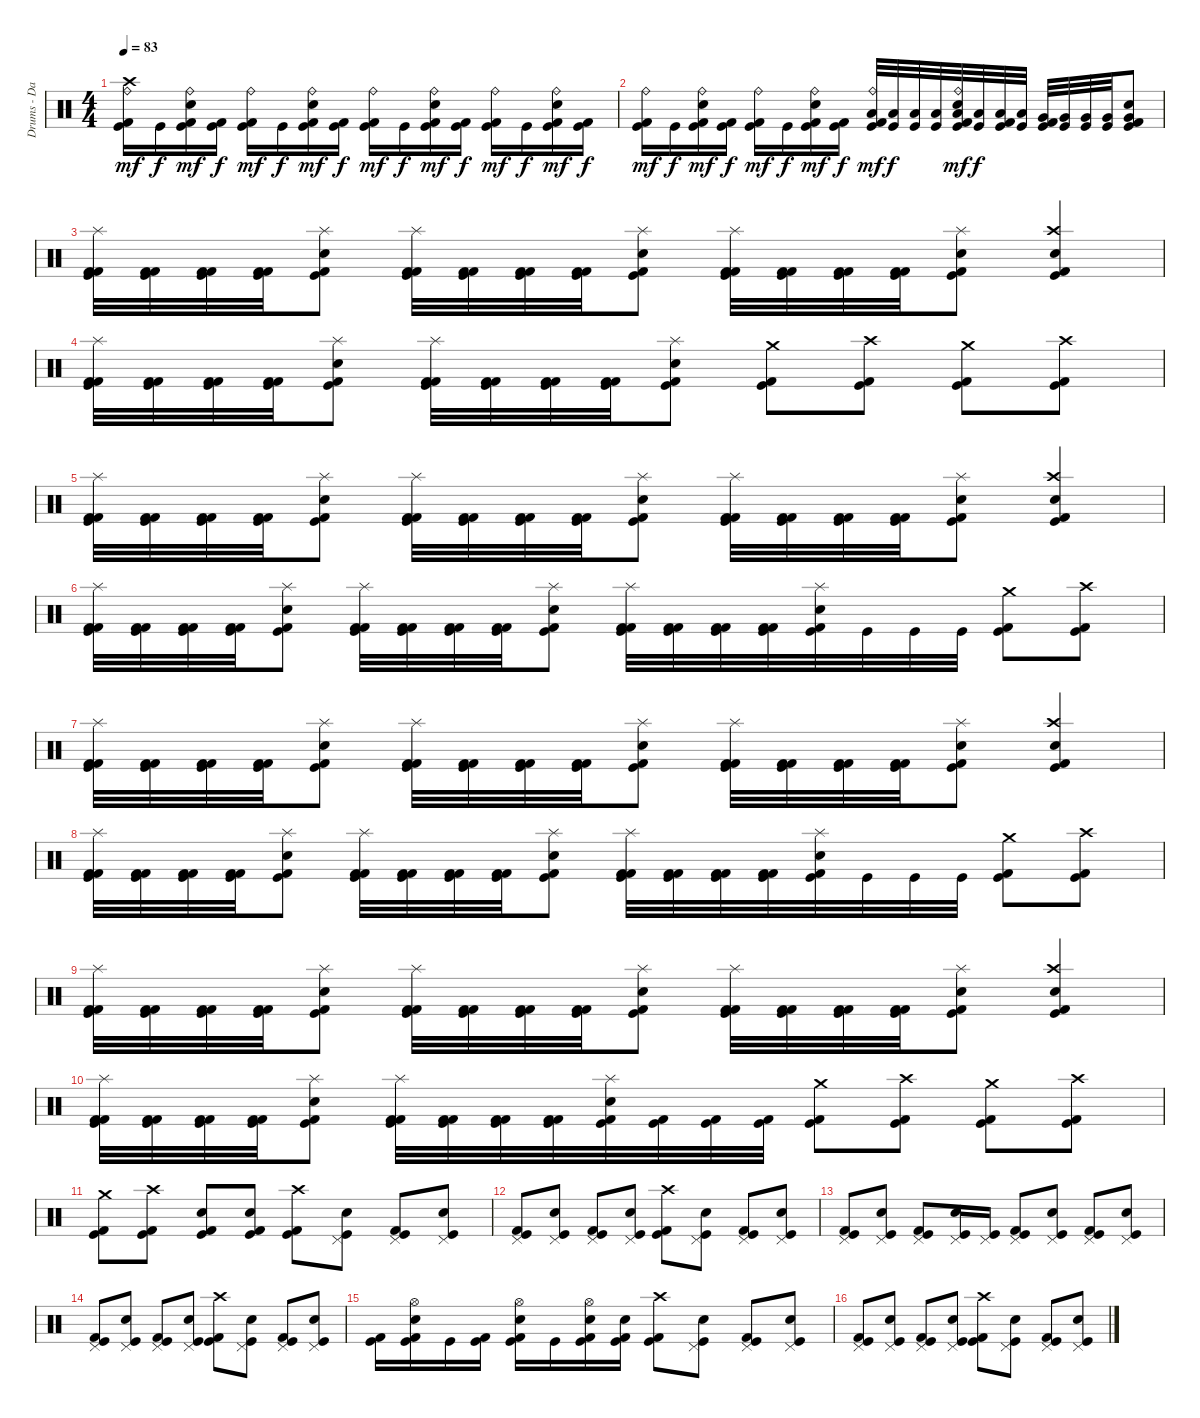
\track ("Drums - Daniel Zimmermann" "Drums - Da") {instrument percussion}
\staff {score}
\articulation defaults
\ts (4 4)
\tempo 83
\clef neutral
\ks c
("Kick (hit)" "Kick (hit) 2" "Crash high (hit)" "Ride (bell)").16{dy mf} "Kick (hit)".16{dy f} ("Kick (hit)" "Kick (hit) 2" "Electric Snare (hit)" "Ride (bell)").16{dy mf} ("Kick (hit)" "Kick (hit) 2").16{dy f} ("Kick (hit)" "Kick (hit) 2" "Ride (bell)").16{dy mf} "Kick (hit)".16{dy f} ("Kick (hit)" "Kick (hit) 2" "Electric Snare (hit)" "Ride (bell)").16{dy mf} ("Kick (hit)" "Kick (hit) 2").16{dy f} ("Kick (hit)" "Kick (hit) 2" "Ride (bell)").16{dy mf} "Kick (hit)".16{dy f} ("Kick (hit)" "Kick (hit) 2" "Electric Snare (hit)" "Ride (bell)").16{dy mf} ("Kick (hit)" "Kick (hit) 2").16{dy f} ("Kick (hit)" "Kick (hit) 2" "Ride (bell)").16{dy mf} "Kick (hit)".16{dy f} ("Kick (hit)" "Kick (hit) 2" "Electric Snare (hit)" "Ride (bell)").16{dy mf} ("Kick (hit)" "Kick (hit) 2").16{dy f} |
("Kick (hit)" "Kick (hit) 2" "Ride (bell)").16{dy mf} "Kick (hit)".16{dy f} ("Kick (hit)" "Kick (hit) 2" "Electric Snare (hit)" "Ride (bell)").16{dy mf} ("Kick (hit)" "Kick (hit) 2").16{dy f} ("Kick (hit)" "Kick (hit) 2" "Ride (bell)").16{dy mf} "Kick (hit)".16{dy f} ("Kick (hit)" "Kick (hit) 2" "Electric Snare (hit)" "Ride (bell)").16{dy mf} ("Kick (hit)" "Kick (hit) 2").16{dy f} ("Kick (hit)" "Kick (hit) 2" "Low Tom (hit)" "Ride (bell)").32{dy mf} ("Kick (hit)" "Low Tom (hit)").32{dy f} ("Kick (hit)" "Low Tom (hit)").32 ("Kick (hit)" "Low Tom (hit)").32 ("Kick (hit)" "Kick (hit) 2" "Electric Snare (hit)" "Low Tom (hit)" "Ride (bell)").32{dy mf} ("Kick (hit)" "Low Tom (hit)").32{dy f} ("Kick (hit)" "Kick (hit) 2" "Low Tom (hit)").32 ("Kick (hit)" "Low Tom (hit)").32 ("Kick (hit)" "Kick (hit) 2" "Very Low Tom (hit)").32 ("Kick (hit)" "Very Low Tom (hit)").32 ("Kick (hit)" "Very Low Tom (hit)").32 ("Kick (hit)" "Very Low Tom (hit)").32 ("Kick (hit)" "Kick (hit) 2" "Electric Snare (hit)" "Very Low Tom (hit)").8 |
("Kick (hit)" "Kick (hit) 2" "Kick (hit) 2" "Splash (hit)").32 ("Kick (hit)" "Kick (hit) 2" "Kick (hit) 2").32 ("Kick (hit)" "Kick (hit) 2" "Kick (hit) 2").32 ("Kick (hit)" "Kick (hit) 2" "Kick (hit) 2").32 ("Kick (hit)" "Kick (hit) 2" "Electric Snare (hit)" "Splash (hit)").8 ("Kick (hit)" "Kick (hit) 2" "Kick (hit) 2" "Splash (hit)").32 ("Kick (hit)" "Kick (hit) 2" "Kick (hit) 2").32 ("Kick (hit)" "Kick (hit) 2" "Kick (hit) 2").32 ("Kick (hit)" "Kick (hit) 2" "Kick (hit) 2").32 ("Kick (hit)" "Kick (hit) 2" "Electric Snare (hit)" "Splash (hit)").8 ("Kick (hit)" "Kick (hit) 2" "Kick (hit) 2" "Splash (hit)").32 ("Kick (hit)" "Kick (hit) 2" "Kick (hit) 2").32 ("Kick (hit)" "Kick (hit) 2" "Kick (hit) 2").32 ("Kick (hit)" "Kick (hit) 2" "Kick (hit) 2").32 ("Kick (hit)" "Kick (hit) 2" "Electric Snare (hit)" "Splash (hit)").8 ("Kick (hit)" "Kick (hit) 2" "Electric Snare (hit)" "Crash high (hit)").4 |
("Kick (hit)" "Kick (hit) 2" "Kick (hit) 2" "Splash (hit)").32 ("Kick (hit)" "Kick (hit) 2" "Kick (hit) 2").32 ("Kick (hit)" "Kick (hit) 2" "Kick (hit) 2").32 ("Kick (hit)" "Kick (hit) 2" "Kick (hit) 2").32 ("Kick (hit)" "Kick (hit) 2" "Electric Snare (hit)" "Splash (hit)").8 ("Kick (hit)" "Kick (hit) 2" "Kick (hit) 2" "Splash (hit)").32 ("Kick (hit)" "Kick (hit) 2" "Kick (hit) 2").32 ("Kick (hit)" "Kick (hit) 2" "Kick (hit) 2").32 ("Kick (hit)" "Kick (hit) 2" "Kick (hit) 2").32 ("Kick (hit)" "Kick (hit) 2" "Electric Snare (hit)" "Splash (hit)").8 ("Kick (hit)" "Kick (hit) 2" "Crash medium (hit)").8 ("Kick (hit)" "Kick (hit) 2" "Crash high (hit)").8 ("Kick (hit)" "Kick (hit) 2" "Crash medium (hit)").8 ("Kick (hit)" "Kick (hit) 2" "Crash high (hit)").8 |
("Kick (hit)" "Kick (hit) 2" "Kick (hit) 2" "Splash (hit)").32 ("Kick (hit)" "Kick (hit) 2" "Kick (hit) 2").32 ("Kick (hit)" "Kick (hit) 2" "Kick (hit) 2").32 ("Kick (hit)" "Kick (hit) 2" "Kick (hit) 2").32 ("Kick (hit)" "Kick (hit) 2" "Electric Snare (hit)" "Splash (hit)").8 ("Kick (hit)" "Kick (hit) 2" "Kick (hit) 2" "Splash (hit)").32 ("Kick (hit)" "Kick (hit) 2" "Kick (hit) 2").32 ("Kick (hit)" "Kick (hit) 2" "Kick (hit) 2").32 ("Kick (hit)" "Kick (hit) 2" "Kick (hit) 2").32 ("Kick (hit)" "Kick (hit) 2" "Electric Snare (hit)" "Splash (hit)").8 ("Kick (hit)" "Kick (hit) 2" "Kick (hit) 2" "Splash (hit)").32 ("Kick (hit)" "Kick (hit) 2" "Kick (hit) 2").32 ("Kick (hit)" "Kick (hit) 2" "Kick (hit) 2").32 ("Kick (hit)" "Kick (hit) 2" "Kick (hit) 2").32 ("Kick (hit)" "Kick (hit) 2" "Electric Snare (hit)" "Splash (hit)").8 ("Kick (hit)" "Kick (hit) 2" "Electric Snare (hit)" "Crash high (hit)").4 |
("Kick (hit)" "Kick (hit) 2" "Kick (hit) 2" "Splash (hit)").32 ("Kick (hit)" "Kick (hit) 2" "Kick (hit) 2").32 ("Kick (hit)" "Kick (hit) 2" "Kick (hit) 2").32 ("Kick (hit)" "Kick (hit) 2" "Kick (hit) 2").32 ("Kick (hit)" "Kick (hit) 2" "Electric Snare (hit)" "Splash (hit)").8 ("Kick (hit)" "Kick (hit) 2" "Kick (hit) 2" "Splash (hit)").32 ("Kick (hit)" "Kick (hit) 2" "Kick (hit) 2").32 ("Kick (hit)" "Kick (hit) 2" "Kick (hit) 2").32 ("Kick (hit)" "Kick (hit) 2" "Kick (hit) 2").32 ("Kick (hit)" "Kick (hit) 2" "Electric Snare (hit)" "Splash (hit)").8 ("Kick (hit)" "Kick (hit) 2" "Kick (hit) 2" "Splash (hit)").32 ("Kick (hit)" "Kick (hit) 2" "Kick (hit) 2").32 ("Kick (hit)" "Kick (hit) 2" "Kick (hit) 2").32 ("Kick (hit)" "Kick (hit) 2" "Kick (hit) 2").32 ("Kick (hit)" "Kick (hit) 2" "Electric Snare (hit)" "Splash (hit)").32 "Kick (hit)".32 "Kick (hit)".32 "Kick (hit)".32 ("Kick (hit)" "Kick (hit) 2" "Crash medium (hit)").8 ("Kick (hit)" "Kick (hit) 2" "Crash high (hit)").8 |
("Kick (hit)" "Kick (hit) 2" "Kick (hit) 2" "Splash (hit)").32 ("Kick (hit)" "Kick (hit) 2" "Kick (hit) 2").32 ("Kick (hit)" "Kick (hit) 2" "Kick (hit) 2").32 ("Kick (hit)" "Kick (hit) 2" "Kick (hit) 2").32 ("Kick (hit)" "Kick (hit) 2" "Electric Snare (hit)" "Splash (hit)").8 ("Kick (hit)" "Kick (hit) 2" "Kick (hit) 2" "Splash (hit)").32 ("Kick (hit)" "Kick (hit) 2" "Kick (hit) 2").32 ("Kick (hit)" "Kick (hit) 2" "Kick (hit) 2").32 ("Kick (hit)" "Kick (hit) 2" "Kick (hit) 2").32 ("Kick (hit)" "Kick (hit) 2" "Electric Snare (hit)" "Splash (hit)").8 ("Kick (hit)" "Kick (hit) 2" "Kick (hit) 2" "Splash (hit)").32 ("Kick (hit)" "Kick (hit) 2" "Kick (hit) 2").32 ("Kick (hit)" "Kick (hit) 2" "Kick (hit) 2").32 ("Kick (hit)" "Kick (hit) 2" "Kick (hit) 2").32 ("Kick (hit)" "Kick (hit) 2" "Electric Snare (hit)" "Splash (hit)").8 ("Kick (hit)" "Kick (hit) 2" "Electric Snare (hit)" "Crash high (hit)").4 |
("Kick (hit)" "Kick (hit) 2" "Kick (hit) 2" "Splash (hit)").32 ("Kick (hit)" "Kick (hit) 2" "Kick (hit) 2").32 ("Kick (hit)" "Kick (hit) 2" "Kick (hit) 2").32 ("Kick (hit)" "Kick (hit) 2" "Kick (hit) 2").32 ("Kick (hit)" "Kick (hit) 2" "Electric Snare (hit)" "Splash (hit)").8 ("Kick (hit)" "Kick (hit) 2" "Kick (hit) 2" "Splash (hit)").32 ("Kick (hit)" "Kick (hit) 2" "Kick (hit) 2").32 ("Kick (hit)" "Kick (hit) 2" "Kick (hit) 2").32 ("Kick (hit)" "Kick (hit) 2" "Kick (hit) 2").32 ("Kick (hit)" "Kick (hit) 2" "Electric Snare (hit)" "Splash (hit)").8 ("Kick (hit)" "Kick (hit) 2" "Kick (hit) 2" "Splash (hit)").32 ("Kick (hit)" "Kick (hit) 2" "Kick (hit) 2").32 ("Kick (hit)" "Kick (hit) 2" "Kick (hit) 2").32 ("Kick (hit)" "Kick (hit) 2" "Kick (hit) 2").32 ("Kick (hit)" "Kick (hit) 2" "Electric Snare (hit)" "Splash (hit)").32 "Kick (hit)".32 "Kick (hit)".32 "Kick (hit)".32 ("Kick (hit)" "Kick (hit) 2" "Crash medium (hit)").8 ("Kick (hit)" "Kick (hit) 2" "Crash high (hit)").8 |
("Kick (hit)" "Kick (hit) 2" "Kick (hit) 2" "Splash (hit)").32 ("Kick (hit)" "Kick (hit) 2" "Kick (hit) 2").32 ("Kick (hit)" "Kick (hit) 2" "Kick (hit) 2").32 ("Kick (hit)" "Kick (hit) 2" "Kick (hit) 2").32 ("Kick (hit)" "Kick (hit) 2" "Electric Snare (hit)" "Splash (hit)").8 ("Kick (hit)" "Kick (hit) 2" "Kick (hit) 2" "Splash (hit)").32 ("Kick (hit)" "Kick (hit) 2" "Kick (hit) 2").32 ("Kick (hit)" "Kick (hit) 2" "Kick (hit) 2").32 ("Kick (hit)" "Kick (hit) 2" "Kick (hit) 2").32 ("Kick (hit)" "Kick (hit) 2" "Electric Snare (hit)" "Splash (hit)").8 ("Kick (hit)" "Kick (hit) 2" "Kick (hit) 2" "Splash (hit)").32 ("Kick (hit)" "Kick (hit) 2" "Kick (hit) 2").32 ("Kick (hit)" "Kick (hit) 2" "Kick (hit) 2").32 ("Kick (hit)" "Kick (hit) 2" "Kick (hit) 2").32 ("Kick (hit)" "Kick (hit) 2" "Electric Snare (hit)" "Splash (hit)").8 ("Kick (hit)" "Kick (hit) 2" "Electric Snare (hit)" "Crash high (hit)").4 |
("Kick (hit)" "Kick (hit) 2" "Kick (hit) 2" "Splash (hit)").32 ("Kick (hit)" "Kick (hit) 2" "Kick (hit) 2").32 ("Kick (hit)" "Kick (hit) 2" "Kick (hit) 2").32 ("Kick (hit)" "Kick (hit) 2" "Kick (hit) 2").32 ("Kick (hit)" "Kick (hit) 2" "Electric Snare (hit)" "Splash (hit)").8 ("Kick (hit)" "Kick (hit) 2" "Kick (hit) 2" "Splash (hit)").32 ("Kick (hit)" "Kick (hit) 2" "Kick (hit) 2").32 ("Kick (hit)" "Kick (hit) 2" "Kick (hit) 2").32 ("Kick (hit)" "Kick (hit) 2" "Kick (hit) 2").32 ("Kick (hit)" "Kick (hit) 2" "Electric Snare (hit)" "Splash (hit)").32 ("Kick (hit)" "Kick (hit) 2").32 ("Kick (hit)" "Kick (hit) 2").32 ("Kick (hit)" "Kick (hit) 2").32 ("Kick (hit)" "Kick (hit) 2" "Crash medium (hit)").8 ("Kick (hit)" "Kick (hit) 2" "Crash high (hit)").8 ("Kick (hit)" "Kick (hit) 2" "Crash medium (hit)").8 ("Kick (hit)" "Kick (hit) 2" "Crash high (hit)").8 |
("Kick (hit)" "Kick (hit) 2" "Crash medium (hit)").8 ("Kick (hit)" "Kick (hit) 2" "Crash high (hit)").8 ("Kick (hit)" "Kick (hit) 2" "Electric Snare (hit)").8 ("Kick (hit)" "Kick (hit) 2" "Electric Snare (hit)").8 ("Kick (hit)" "Kick (hit) 2" "Crash high (hit)").8 ("Kick (hit)" "Electric Snare (hit)" "Pedal Hi-Hat (hit)").8 ("Kick (hit)" "Kick (hit) 2" "Pedal Hi-Hat (hit)").8 ("Kick (hit)" "Electric Snare (hit)" "Pedal Hi-Hat (hit)").8 |
("Kick (hit)" "Kick (hit) 2" "Pedal Hi-Hat (hit)").8 ("Kick (hit)" "Electric Snare (hit)" "Pedal Hi-Hat (hit)").8 ("Kick (hit)" "Kick (hit) 2" "Pedal Hi-Hat (hit)").8 ("Kick (hit)" "Electric Snare (hit)" "Pedal Hi-Hat (hit)").8 ("Kick (hit)" "Kick (hit) 2" "Crash high (hit)").8 ("Kick (hit)" "Electric Snare (hit)" "Pedal Hi-Hat (hit)").8 ("Kick (hit)" "Kick (hit) 2" "Pedal Hi-Hat (hit)").8 ("Kick (hit)" "Electric Snare (hit)" "Pedal Hi-Hat (hit)").8 |
("Kick (hit)" "Kick (hit) 2" "Pedal Hi-Hat (hit)").8 ("Kick (hit)" "Electric Snare (hit)" "Pedal Hi-Hat (hit)").8 ("Kick (hit)" "Kick (hit) 2" "Pedal Hi-Hat (hit)").8 ("Kick (hit)" "Electric Snare (hit)" "Pedal Hi-Hat (hit)").16 ("Kick (hit)" "Pedal Hi-Hat (hit)").16 ("Kick (hit)" "Kick (hit) 2" "Pedal Hi-Hat (hit)").8 ("Kick (hit)" "Electric Snare (hit)" "Pedal Hi-Hat (hit)").8 ("Kick (hit)" "Kick (hit) 2" "Pedal Hi-Hat (hit)").8 ("Kick (hit)" "Electric Snare (hit)" "Pedal Hi-Hat (hit)").8 |
("Kick (hit)" "Kick (hit) 2" "Pedal Hi-Hat (hit)").8 ("Kick (hit)" "Electric Snare (hit)" "Pedal Hi-Hat (hit)").8 ("Kick (hit)" "Kick (hit) 2" "Pedal Hi-Hat (hit)").8 ("Kick (hit)" "Electric Snare (hit)" "Pedal Hi-Hat (hit)").8 ("Kick (hit)" "Kick (hit) 2" "Crash high (hit)").8 ("Kick (hit)" "Electric Snare (hit)" "Pedal Hi-Hat (hit)").8 ("Kick (hit)" "Kick (hit) 2" "Pedal Hi-Hat (hit)").8 ("Kick (hit)" "Electric Snare (hit)" "Pedal Hi-Hat (hit)").8 |
("Kick (hit)" "Kick (hit) 2").16 ("Kick (hit)" "Kick (hit) 2" "Electric Snare (hit)" "Hi-Hat (open)").16 "Kick (hit)".16 ("Kick (hit)" "Kick (hit) 2").16 ("Kick (hit)" "Kick (hit) 2" "Electric Snare (hit)" "Hi-Hat (open)").16 "Kick (hit)".16 ("Kick (hit)" "Kick (hit) 2" "Electric Snare (hit)" "Hi-Hat (open)").16 ("Kick (hit)" "Kick (hit) 2" "Electric Snare (hit)").16 ("Kick (hit)" "Kick (hit) 2" "Crash high (hit)").8 ("Kick (hit)" "Electric Snare (hit)" "Pedal Hi-Hat (hit)").8 ("Kick (hit)" "Kick (hit) 2" "Pedal Hi-Hat (hit)").8 ("Kick (hit)" "Electric Snare (hit)" "Pedal Hi-Hat (hit)").8 |
("Kick (hit)" "Kick (hit) 2" "Pedal Hi-Hat (hit)").8 ("Kick (hit)" "Electric Snare (hit)" "Pedal Hi-Hat (hit)").8 ("Kick (hit)" "Kick (hit) 2" "Pedal Hi-Hat (hit)").8 ("Kick (hit)" "Electric Snare (hit)" "Pedal Hi-Hat (hit)").8 ("Kick (hit)" "Kick (hit) 2" "Crash high (hit)").8 ("Kick (hit)" "Electric Snare (hit)" "Pedal Hi-Hat (hit)").8 ("Kick (hit)" "Kick (hit) 2" "Pedal Hi-Hat (hit)").8 ("Kick (hit)" "Electric Snare (hit)" "Pedal Hi-Hat (hit)").8
